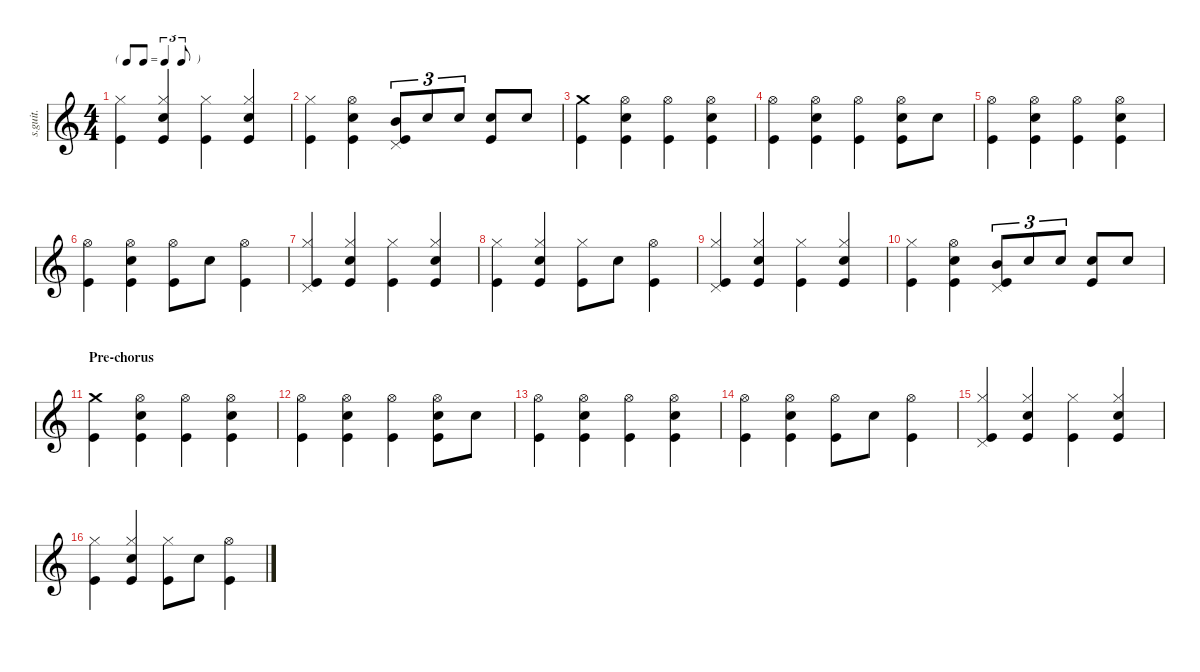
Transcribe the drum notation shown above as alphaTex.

\defaultSystemsLayout 4
\hideDynamics
\bracketExtendMode nobrackets
\track ("Dave Grohl" "s.guit.") {instrument percussion}
\staff {score}
\articulation defaults
\ts (4 4)
\tf triplet8th
\tempo (171 hide)
\clef g2
\ks c
("Kick (hit)" "Hi-Hat (closed)").4{lyrics (0 "") lyrics (1 "") lyrics (2 "") lyrics (3 "") lyrics (4 "") dy mf} ("Kick (hit)" "Snare (hit) 2" "Hi-Hat (closed)").4{lyrics (0 "") lyrics (1 "") lyrics (2 "") lyrics (3 "") lyrics (4 "")} ("Kick (hit)" "Hi-Hat (closed)").4{lyrics (0 "") lyrics (1 "") lyrics (2 "") lyrics (3 "") lyrics (4 "")} ("Kick (hit)" "Snare (hit) 2" "Hi-Hat (closed)").4{lyrics (0 "") lyrics (1 "") lyrics (2 "") lyrics (3 "") lyrics (4 "")} |
("Kick (hit)" "Hi-Hat (closed)").4{lyrics (0 "") lyrics (1 "") lyrics (2 "") lyrics (3 "") lyrics (4 "")} ("Kick (hit)" "Snare (hit) 2" "Hi-Hat (open)").4{lyrics (0 "") lyrics (1 "") lyrics (2 "") lyrics (3 "") lyrics (4 "")} ("Kick (hit)" "Pedal Hi-Hat (hit)" "Mid Tom (hit)").8{tu (3 2) lyrics (0 "") lyrics (1 "") lyrics (2 "") lyrics (3 "") lyrics (4 "")} "Snare (hit) 2".8{tu (3 2) lyrics (0 "") lyrics (1 "") lyrics (2 "") lyrics (3 "") lyrics (4 "")} "Snare (hit) 2".8{tu (3 2) lyrics (0 "") lyrics (1 "") lyrics (2 "") lyrics (3 "") lyrics (4 "")} ("Kick (hit)" "Snare (hit) 2").8{lyrics (0 "") lyrics (1 "") lyrics (2 "") lyrics (3 "") lyrics (4 "")} "Snare (hit) 2".8{lyrics (0 "") lyrics (1 "") lyrics (2 "") lyrics (3 "") lyrics (4 "")} |
("Kick (hit)" "Crash medium (hit)").4{lyrics (0 "") lyrics (1 "") lyrics (2 "") lyrics (3 "") lyrics (4 "")} ("Kick (hit)" "Snare (hit) 2" "Hi-Hat (open)").4{lyrics (0 "") lyrics (1 "") lyrics (2 "") lyrics (3 "") lyrics (4 "")} ("Kick (hit)" "Hi-Hat (open)").4{lyrics (0 "") lyrics (1 "") lyrics (2 "") lyrics (3 "") lyrics (4 "")} ("Kick (hit)" "Snare (hit) 2" "Hi-Hat (open)").4{lyrics (0 "") lyrics (1 "") lyrics (2 "") lyrics (3 "") lyrics (4 "")} |
("Kick (hit)" "Hi-Hat (open)").4{lyrics (0 "") lyrics (1 "") lyrics (2 "") lyrics (3 "") lyrics (4 "")} ("Kick (hit)" "Snare (hit) 2" "Hi-Hat (open)").4{lyrics (0 "") lyrics (1 "") lyrics (2 "") lyrics (3 "") lyrics (4 "")} ("Kick (hit)" "Hi-Hat (open)").4{lyrics (0 "") lyrics (1 "") lyrics (2 "") lyrics (3 "") lyrics (4 "")} ("Kick (hit)" "Snare (hit) 2" "Hi-Hat (open)").8{lyrics (0 "") lyrics (1 "") lyrics (2 "") lyrics (3 "") lyrics (4 "")} "Snare (hit) 2".8{lyrics (0 "") lyrics (1 "") lyrics (2 "") lyrics (3 "") lyrics (4 "")} |
("Kick (hit)" "Hi-Hat (open)").4{lyrics (0 "") lyrics (1 "") lyrics (2 "") lyrics (3 "") lyrics (4 "")} ("Kick (hit)" "Snare (hit) 2" "Hi-Hat (open)").4{lyrics (0 "") lyrics (1 "") lyrics (2 "") lyrics (3 "") lyrics (4 "")} ("Kick (hit)" "Hi-Hat (open)").4{lyrics (0 "") lyrics (1 "") lyrics (2 "") lyrics (3 "") lyrics (4 "")} ("Kick (hit)" "Snare (hit) 2" "Hi-Hat (open)").4{lyrics (0 "") lyrics (1 "") lyrics (2 "") lyrics (3 "") lyrics (4 "")} |
("Kick (hit)" "Hi-Hat (open)").4{lyrics (0 "") lyrics (1 "") lyrics (2 "") lyrics (3 "") lyrics (4 "")} ("Kick (hit)" "Snare (hit) 2" "Hi-Hat (open)").4{lyrics (0 "") lyrics (1 "") lyrics (2 "") lyrics (3 "") lyrics (4 "")} ("Kick (hit)" "Hi-Hat (open)").8{lyrics (0 "") lyrics (1 "") lyrics (2 "") lyrics (3 "") lyrics (4 "")} "Snare (hit) 2".8{lyrics (0 "") lyrics (1 "") lyrics (2 "") lyrics (3 "") lyrics (4 "")} ("Kick (hit)" "Hi-Hat (open)").4{lyrics (0 "") lyrics (1 "") lyrics (2 "") lyrics (3 "") lyrics (4 "")} |
("Kick (hit)" "Hi-Hat (closed)" "Pedal Hi-Hat (hit)").4{lyrics (0 "") lyrics (1 "") lyrics (2 "") lyrics (3 "") lyrics (4 "")} ("Kick (hit)" "Snare (hit) 2" "Hi-Hat (closed)").4{lyrics (0 "") lyrics (1 "") lyrics (2 "") lyrics (3 "") lyrics (4 "")} ("Kick (hit)" "Hi-Hat (closed)").4{lyrics (0 "") lyrics (1 "") lyrics (2 "") lyrics (3 "") lyrics (4 "")} ("Kick (hit)" "Snare (hit) 2" "Hi-Hat (closed)").4{lyrics (0 "") lyrics (1 "") lyrics (2 "") lyrics (3 "") lyrics (4 "")} |
("Kick (hit)" "Hi-Hat (closed)").4{lyrics (0 "") lyrics (1 "") lyrics (2 "") lyrics (3 "") lyrics (4 "")} ("Kick (hit)" "Snare (hit) 2" "Hi-Hat (closed)").4{lyrics (0 "") lyrics (1 "") lyrics (2 "") lyrics (3 "") lyrics (4 "")} ("Kick (hit)" "Hi-Hat (closed)").8{lyrics (0 "") lyrics (1 "") lyrics (2 "") lyrics (3 "") lyrics (4 "")} "Snare (hit) 2".8{lyrics (0 "") lyrics (1 "") lyrics (2 "") lyrics (3 "") lyrics (4 "")} ("Kick (hit)" "Hi-Hat (open)").4{lyrics (0 "") lyrics (1 "") lyrics (2 "") lyrics (3 "") lyrics (4 "")} |
("Kick (hit)" "Hi-Hat (closed)" "Pedal Hi-Hat (hit)").4{lyrics (0 "") lyrics (1 "") lyrics (2 "") lyrics (3 "") lyrics (4 "")} ("Kick (hit)" "Snare (hit) 2" "Hi-Hat (closed)").4{lyrics (0 "") lyrics (1 "") lyrics (2 "") lyrics (3 "") lyrics (4 "")} ("Kick (hit)" "Hi-Hat (closed)").4{lyrics (0 "") lyrics (1 "") lyrics (2 "") lyrics (3 "") lyrics (4 "")} ("Kick (hit)" "Snare (hit) 2" "Hi-Hat (closed)").4{lyrics (0 "") lyrics (1 "") lyrics (2 "") lyrics (3 "") lyrics (4 "")} |
("Kick (hit)" "Hi-Hat (closed)").4{lyrics (0 "") lyrics (1 "") lyrics (2 "") lyrics (3 "") lyrics (4 "")} ("Kick (hit)" "Snare (hit) 2" "Hi-Hat (open)").4{lyrics (0 "") lyrics (1 "") lyrics (2 "") lyrics (3 "") lyrics (4 "")} ("Kick (hit)" "Pedal Hi-Hat (hit)" "Mid Tom (hit)").8{tu (3 2) lyrics (0 "") lyrics (1 "") lyrics (2 "") lyrics (3 "") lyrics (4 "")} "Snare (hit) 2".8{tu (3 2) lyrics (0 "") lyrics (1 "") lyrics (2 "") lyrics (3 "") lyrics (4 "")} "Snare (hit) 2".8{tu (3 2) lyrics (0 "") lyrics (1 "") lyrics (2 "") lyrics (3 "") lyrics (4 "")} ("Kick (hit)" "Snare (hit) 2").8{lyrics (0 "") lyrics (1 "") lyrics (2 "") lyrics (3 "") lyrics (4 "")} "Snare (hit) 2".8{lyrics (0 "") lyrics (1 "") lyrics (2 "") lyrics (3 "") lyrics (4 "")} |
\section ("" "Pre-chorus")
("Kick (hit)" "Crash medium (hit)").4{lyrics (0 "") lyrics (1 "") lyrics (2 "") lyrics (3 "") lyrics (4 "")} ("Kick (hit)" "Snare (hit) 2" "Hi-Hat (open)").4{lyrics (0 "") lyrics (1 "") lyrics (2 "") lyrics (3 "") lyrics (4 "")} ("Kick (hit)" "Hi-Hat (open)").4{lyrics (0 "") lyrics (1 "") lyrics (2 "") lyrics (3 "") lyrics (4 "")} ("Kick (hit)" "Snare (hit) 2" "Hi-Hat (open)").4{lyrics (0 "") lyrics (1 "") lyrics (2 "") lyrics (3 "") lyrics (4 "")} |
("Kick (hit)" "Hi-Hat (open)").4{lyrics (0 "") lyrics (1 "") lyrics (2 "") lyrics (3 "") lyrics (4 "")} ("Kick (hit)" "Snare (hit) 2" "Hi-Hat (open)").4{lyrics (0 "") lyrics (1 "") lyrics (2 "") lyrics (3 "") lyrics (4 "")} ("Kick (hit)" "Hi-Hat (open)").4{lyrics (0 "") lyrics (1 "") lyrics (2 "") lyrics (3 "") lyrics (4 "")} ("Kick (hit)" "Snare (hit) 2" "Hi-Hat (open)").8{lyrics (0 "") lyrics (1 "") lyrics (2 "") lyrics (3 "") lyrics (4 "")} "Snare (hit) 2".8{lyrics (0 "") lyrics (1 "") lyrics (2 "") lyrics (3 "") lyrics (4 "")} |
("Kick (hit)" "Hi-Hat (open)").4{lyrics (0 "") lyrics (1 "") lyrics (2 "") lyrics (3 "") lyrics (4 "")} ("Kick (hit)" "Snare (hit) 2" "Hi-Hat (open)").4{lyrics (0 "") lyrics (1 "") lyrics (2 "") lyrics (3 "") lyrics (4 "")} ("Kick (hit)" "Hi-Hat (open)").4{lyrics (0 "") lyrics (1 "") lyrics (2 "") lyrics (3 "") lyrics (4 "")} ("Kick (hit)" "Snare (hit) 2" "Hi-Hat (open)").4{lyrics (0 "") lyrics (1 "") lyrics (2 "") lyrics (3 "") lyrics (4 "")} |
("Kick (hit)" "Hi-Hat (open)").4{lyrics (0 "") lyrics (1 "") lyrics (2 "") lyrics (3 "") lyrics (4 "")} ("Kick (hit)" "Snare (hit) 2" "Hi-Hat (open)").4{lyrics (0 "") lyrics (1 "") lyrics (2 "") lyrics (3 "") lyrics (4 "")} ("Kick (hit)" "Hi-Hat (open)").8{lyrics (0 "") lyrics (1 "") lyrics (2 "") lyrics (3 "") lyrics (4 "")} "Snare (hit) 2".8{lyrics (0 "") lyrics (1 "") lyrics (2 "") lyrics (3 "") lyrics (4 "")} ("Kick (hit)" "Hi-Hat (open)").4{lyrics (0 "") lyrics (1 "") lyrics (2 "") lyrics (3 "") lyrics (4 "")} |
("Kick (hit)" "Hi-Hat (closed)" "Pedal Hi-Hat (hit)").4{lyrics (0 "") lyrics (1 "") lyrics (2 "") lyrics (3 "") lyrics (4 "")} ("Kick (hit)" "Snare (hit) 2" "Hi-Hat (closed)").4{lyrics (0 "") lyrics (1 "") lyrics (2 "") lyrics (3 "") lyrics (4 "")} ("Kick (hit)" "Hi-Hat (closed)").4{lyrics (0 "") lyrics (1 "") lyrics (2 "") lyrics (3 "") lyrics (4 "")} ("Kick (hit)" "Snare (hit) 2" "Hi-Hat (closed)").4{lyrics (0 "") lyrics (1 "") lyrics (2 "") lyrics (3 "") lyrics (4 "")} |
("Kick (hit)" "Hi-Hat (closed)").4{lyrics (0 "") lyrics (1 "") lyrics (2 "") lyrics (3 "") lyrics (4 "")} ("Kick (hit)" "Snare (hit) 2" "Hi-Hat (closed)").4{lyrics (0 "") lyrics (1 "") lyrics (2 "") lyrics (3 "") lyrics (4 "")} ("Kick (hit)" "Hi-Hat (closed)").8{lyrics (0 "") lyrics (1 "") lyrics (2 "") lyrics (3 "") lyrics (4 "")} "Snare (hit) 2".8{lyrics (0 "") lyrics (1 "") lyrics (2 "") lyrics (3 "") lyrics (4 "")} ("Kick (hit)" "Hi-Hat (open)").4{lyrics (0 "") lyrics (1 "") lyrics (2 "") lyrics (3 "") lyrics (4 "")}
